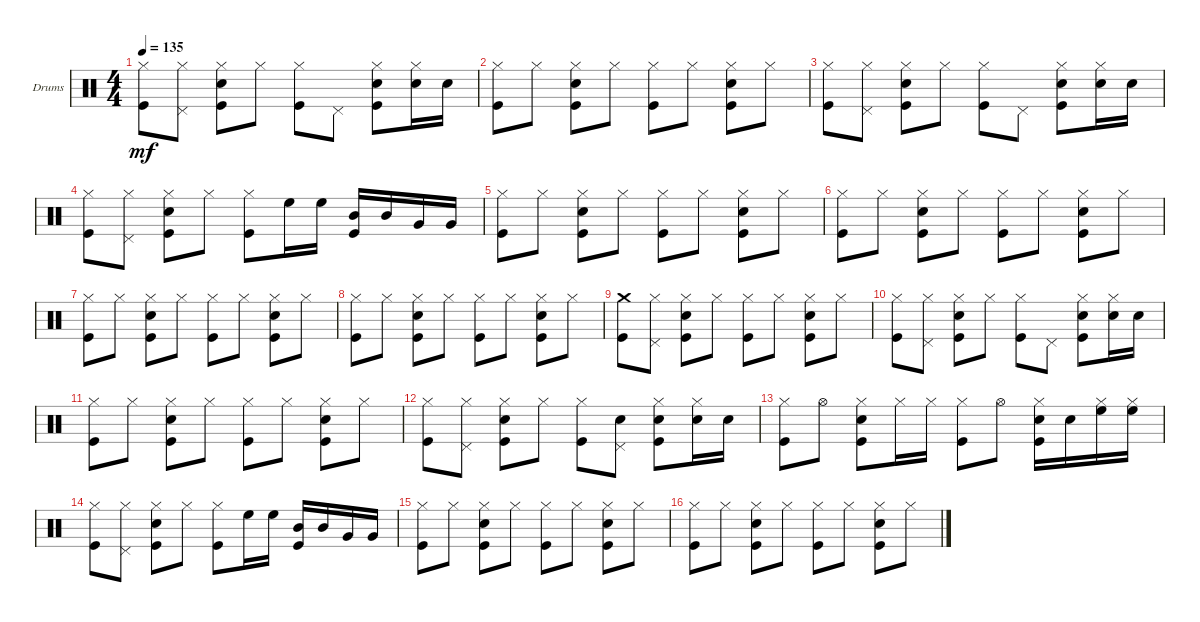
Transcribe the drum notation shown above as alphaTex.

\bracketExtendMode groupsimilarinstruments
\firstSystemTrackNameOrientation horizontal
\otherSystemsTrackNameOrientation horizontal
\track ("Drumkit" "Drums") {instrument percussion}
\staff {score}
\articulation defaults
\ts (4 4)
\tempo 135
\clef neutral
\ks c
("Kick (hit)" "Hi-Hat (closed)").8{dy mf} ("Hi-Hat (closed)" "Pedal Hi-Hat (hit)").8 ("Kick (hit)" "Hi-Hat (closed)" "Snare (hit) 2").8 "Hi-Hat (closed)".8 ("Kick (hit)" "Hi-Hat (closed)").8 "Pedal Hi-Hat (hit)".8 ("Hi-Hat (closed)" "Snare (hit) 2" "Kick (hit)").8 ("Snare (hit) 2" "Hi-Hat (closed)").16 "Snare (hit) 2".16 |
("Kick (hit)" "Hi-Hat (closed)").8 "Hi-Hat (closed)".8 ("Hi-Hat (closed)" "Kick (hit)" "Snare (hit) 2").8 "Hi-Hat (closed)".8 ("Kick (hit)" "Hi-Hat (closed)").8 "Hi-Hat (closed)".8 ("Snare (hit) 2" "Hi-Hat (closed)" "Kick (hit)").8 "Hi-Hat (closed)".8 |
("Hi-Hat (closed)" "Kick (hit)").8 ("Hi-Hat (closed)" "Pedal Hi-Hat (hit)").8 ("Snare (hit) 2" "Hi-Hat (closed)" "Kick (hit)").8 "Hi-Hat (closed)".8 ("Kick (hit)" "Hi-Hat (closed)").8 "Pedal Hi-Hat (hit)".8 ("Snare (hit) 2" "Hi-Hat (closed)" "Kick (hit)").8 ("Hi-Hat (closed)" "Snare (hit) 2").16 "Snare (hit) 2".16 |
("Kick (hit)" "Hi-Hat (closed)").8 ("Pedal Hi-Hat (hit)" "Hi-Hat (closed)").8 ("Kick (hit)" "Snare (hit) 2" "Hi-Hat (closed)").8 "Hi-Hat (closed)".8 ("Kick (hit)" "Hi-Hat (closed)").8 "High Floor Tom (hit)".16 "High Floor Tom (hit)".16 ("Kick (hit)" "Mid Tom (hit)").16 "Mid Tom (hit)".16 "Very Low Tom (hit)".16 "Very Low Tom (hit)".16 |
("Hi-Hat (closed)" "Kick (hit)").8 "Hi-Hat (closed)".8 ("Snare (hit) 2" "Hi-Hat (closed)" "Kick (hit)").8 "Hi-Hat (closed)".8 ("Hi-Hat (closed)" "Kick (hit)").8 "Hi-Hat (closed)".8 ("Snare (hit) 2" "Hi-Hat (closed)" "Kick (hit)").8 "Hi-Hat (closed)".8 |
("Kick (hit)" "Hi-Hat (closed)").8 "Hi-Hat (closed)".8 ("Kick (hit)" "Snare (hit) 2" "Hi-Hat (closed)").8 "Hi-Hat (closed)".8 ("Kick (hit)" "Hi-Hat (closed)").8 "Hi-Hat (closed)".8 ("Hi-Hat (closed)" "Kick (hit)" "Snare (hit) 2").8 "Hi-Hat (closed)".8 |
("Hi-Hat (closed)" "Kick (hit)").8 "Hi-Hat (closed)".8 ("Snare (hit) 2" "Kick (hit)" "Hi-Hat (closed)").8 "Hi-Hat (closed)".8 ("Hi-Hat (closed)" "Kick (hit)").8 "Hi-Hat (closed)".8 ("Snare (hit) 2" "Hi-Hat (closed)" "Kick (hit)").8 "Hi-Hat (closed)".8 |
("Hi-Hat (closed)" "Kick (hit)").8 "Hi-Hat (closed)".8 ("Kick (hit)" "Snare (hit) 2" "Hi-Hat (closed)").8 "Hi-Hat (closed)".8 ("Hi-Hat (closed)" "Kick (hit)").8 "Hi-Hat (closed)".8 ("Snare (hit) 2" "Hi-Hat (closed)" "Kick (hit)").8 "Hi-Hat (closed)".8 |
("Crash medium (hit)" "Kick (hit)").8 ("Pedal Hi-Hat (hit)" "Hi-Hat (closed)").8 ("Hi-Hat (closed)" "Snare (hit) 2" "Kick (hit)").8 "Hi-Hat (closed)".8 ("Hi-Hat (closed)" "Kick (hit)").8 "Hi-Hat (closed)".8 ("Snare (hit) 2" "Hi-Hat (closed)" "Kick (hit)").8 "Hi-Hat (closed)".8 |
("Hi-Hat (closed)" "Kick (hit)").8 ("Pedal Hi-Hat (hit)" "Hi-Hat (closed)").8 ("Hi-Hat (closed)" "Snare (hit) 2" "Kick (hit)").8 "Hi-Hat (closed)".8 ("Hi-Hat (closed)" "Kick (hit)").8 "Pedal Hi-Hat (hit)".8 ("Hi-Hat (closed)" "Snare (hit) 2" "Kick (hit)").8 ("Hi-Hat (closed)" "Snare (hit) 2").16 "Snare (hit) 2".16 |
("Hi-Hat (closed)" "Kick (hit)").8 "Hi-Hat (closed)".8 ("Snare (hit) 2" "Kick (hit)" "Hi-Hat (closed)").8 "Hi-Hat (closed)".8 ("Hi-Hat (closed)" "Kick (hit)").8 "Hi-Hat (closed)".8 ("Snare (hit) 2" "Hi-Hat (closed)" "Kick (hit)").8 "Hi-Hat (closed)".8 |
("Kick (hit)" "Hi-Hat (closed)").8 ("Hi-Hat (closed)" "Pedal Hi-Hat (hit)").8 ("Hi-Hat (closed)" "Snare (hit) 2" "Kick (hit)").8 "Hi-Hat (closed)".8 ("Hi-Hat (closed)" "Kick (hit)").8 ("Pedal Hi-Hat (hit)" "Snare (hit) 2").8 ("Snare (hit) 2" "Hi-Hat (closed)" "Kick (hit)").8 ("Hi-Hat (closed)" "Snare (hit) 2").16 "Snare (hit) 2".16 |
("Kick (hit)" "Hi-Hat (closed)").8 "Hi-Hat (open)".8 ("Kick (hit)" "Hi-Hat (closed)" "Snare (hit) 2").8 "Hi-Hat (closed)".16 "Hi-Hat (closed)".16 ("Hi-Hat (closed)" "Kick (hit)").8 "Hi-Hat (open)".8 ("Snare (hit) 2" "Kick (hit)" "Hi-Hat (closed)").16 "Snare (hit) 2".16 ("High Floor Tom (hit)" "Hi-Hat (closed)").16 ("High Floor Tom (hit)" "Hi-Hat (closed)").16 |
("Kick (hit)" "Hi-Hat (closed)").8 ("Pedal Hi-Hat (hit)" "Hi-Hat (closed)").8 ("Kick (hit)" "Snare (hit) 2" "Hi-Hat (closed)").8 "Hi-Hat (closed)".8 ("Kick (hit)" "Hi-Hat (closed)").8 "High Floor Tom (hit)".16 "High Floor Tom (hit)".16 ("Kick (hit)" "Mid Tom (hit)").16 "Mid Tom (hit)".16 "Very Low Tom (hit)".16 "Very Low Tom (hit)".16 |
("Hi-Hat (closed)" "Kick (hit)").8 "Hi-Hat (closed)".8 ("Snare (hit) 2" "Hi-Hat (closed)" "Kick (hit)").8 "Hi-Hat (closed)".8 ("Hi-Hat (closed)" "Kick (hit)").8 "Hi-Hat (closed)".8 ("Snare (hit) 2" "Hi-Hat (closed)" "Kick (hit)").8 "Hi-Hat (closed)".8 |
("Kick (hit)" "Hi-Hat (closed)").8 "Hi-Hat (closed)".8 ("Kick (hit)" "Snare (hit) 2" "Hi-Hat (closed)").8 "Hi-Hat (closed)".8 ("Kick (hit)" "Hi-Hat (closed)").8 "Hi-Hat (closed)".8 ("Hi-Hat (closed)" "Kick (hit)" "Snare (hit) 2").8 "Hi-Hat (closed)".8
